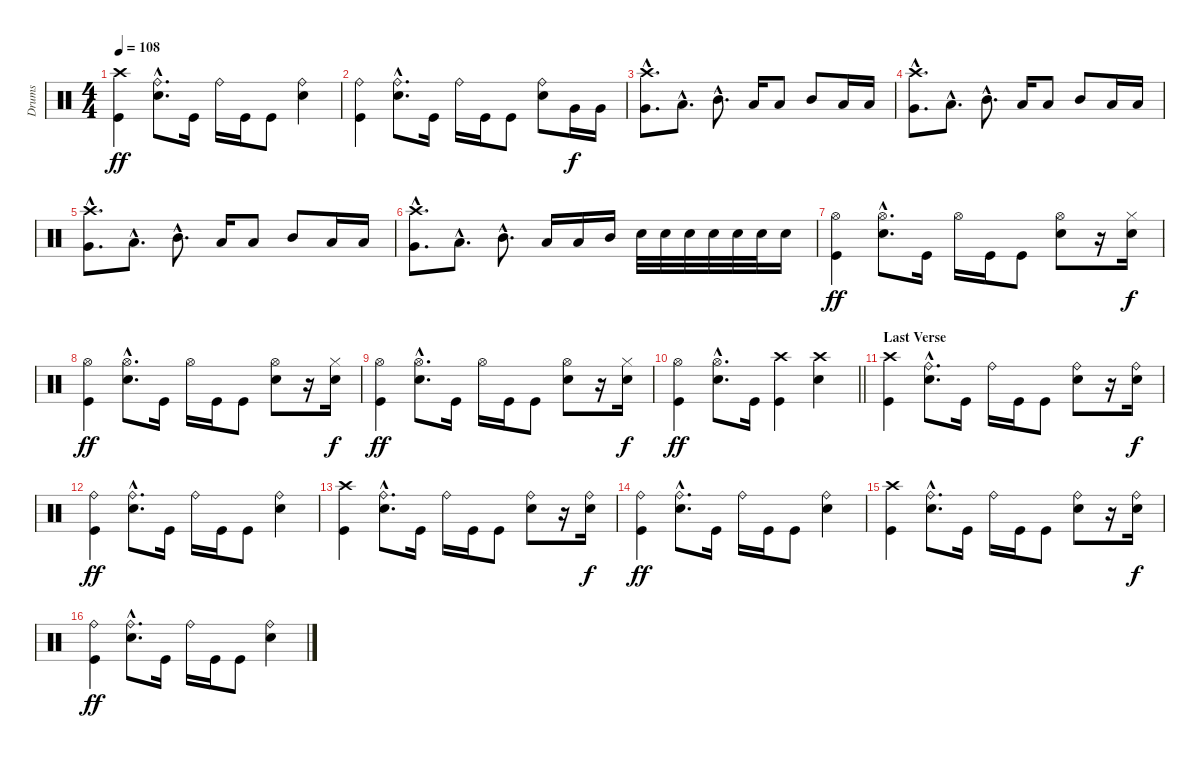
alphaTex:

\track ("Drums" "Drums") {instrument percussion}
\staff {score}
\articulation defaults
\ts (4 4)
\tempo 108
\clef neutral
\ks c
("Crash high (hit)" "Kick (hit)").4{dy ff} ("Ride (bell)"{hac} "Electric Snare (hit)"{hac}).8{d} "Kick (hit)".16 "Ride (bell)".16 "Kick (hit)".16 "Kick (hit)".8 ("Ride (bell)" "Electric Snare (hit)").4 |
("Ride (bell)" "Kick (hit)").4 ("Ride (bell)"{hac} "Electric Snare (hit)"{hac}).8{d} "Kick (hit)".16 "Ride (bell)".16 "Kick (hit)".16 "Kick (hit)".8 ("Ride (bell)" "Electric Snare (hit)").8 "Very Low Tom (hit)".16{dy f} "Very Low Tom (hit)".16 |
("Crash high (hit)"{hac} "Very Low Tom (hit)"{hac}).8{d} "Low Tom (hit)"{hac}.8{d} "Mid Tom (hit)"{hac}.8{d} "Low Tom (hit)".16 "Low Tom (hit)".8 "Mid Tom (hit)".8 "Low Tom (hit)".16 "Low Tom (hit)".16 |
("Crash high (hit)"{hac} "Very Low Tom (hit)"{hac}).8{d} "Low Tom (hit)"{hac}.8{d} "Mid Tom (hit)"{hac}.8{d} "Low Tom (hit)".16 "Low Tom (hit)".8 "Mid Tom (hit)".8 "Low Tom (hit)".16 "Low Tom (hit)".16 |
("Crash high (hit)"{hac} "Very Low Tom (hit)"{hac}).8{d} "Low Tom (hit)"{hac}.8{d} "Mid Tom (hit)"{hac}.8{d} "Low Tom (hit)".16 "Low Tom (hit)".8 "Mid Tom (hit)".8 "Low Tom (hit)".16 "Low Tom (hit)".16 |
("Crash high (hit)"{hac} "Very Low Tom (hit)"{hac}).8{d} "Low Tom (hit)"{hac}.8{d} "Mid Tom (hit)"{hac}.8{d} "Low Tom (hit)".16 "Low Tom (hit)".16 "Mid Tom (hit)".16 "Electric Snare (hit)".32 "Electric Snare (hit)".32 "Electric Snare (hit)".32 "Electric Snare (hit)".32 "Electric Snare (hit)".32 "Electric Snare (hit)".32 "Electric Snare (hit)".16 |
("Hi-Hat (open)" "Kick (hit)").4{dy ff} ("Hi-Hat (open)"{hac} "Electric Snare (hit)"{hac}).8{d} "Kick (hit)".16 "Hi-Hat (open)".16 "Kick (hit)".16 "Kick (hit)".8 ("Hi-Hat (open)" "Electric Snare (hit)").8 r.16 ("Hi-Hat (closed)" "Electric Snare (hit)").16{dy f} |
("Hi-Hat (open)" "Kick (hit)").4{dy ff} ("Hi-Hat (open)"{hac} "Electric Snare (hit)"{hac}).8{d} "Kick (hit)".16 "Hi-Hat (open)".16 "Kick (hit)".16 "Kick (hit)".8 ("Hi-Hat (open)" "Electric Snare (hit)").8 r.16 ("Hi-Hat (closed)" "Electric Snare (hit)").16{dy f} |
("Hi-Hat (open)" "Kick (hit)").4{dy ff} ("Hi-Hat (open)"{hac} "Electric Snare (hit)"{hac}).8{d} "Kick (hit)".16 "Hi-Hat (open)".16 "Kick (hit)".16 "Kick (hit)".8 ("Hi-Hat (open)" "Electric Snare (hit)").8 r.16 ("Hi-Hat (closed)" "Electric Snare (hit)").16{dy f} |
\barLineRight lightlight
("Hi-Hat (open)" "Kick (hit)").4{dy ff} ("Hi-Hat (open)"{hac} "Electric Snare (hit)"{hac}).8{d} "Kick (hit)".16 ("Crash high (hit)" "Kick (hit)").4 ("Crash high (hit)" "Electric Snare (hit)").4 |
\section ("" "Last Verse")
("Crash high (hit)" "Kick (hit)").4 ("Ride (bell)"{hac} "Electric Snare (hit)"{hac}).8{d} "Kick (hit)".16 "Ride (bell)".16 "Kick (hit)".16 "Kick (hit)".8 ("Ride (bell)" "Electric Snare (hit)").8 r.16 ("Ride (bell)" "Electric Snare (hit)").16{dy f} |
("Ride (bell)" "Kick (hit)").4{dy ff} ("Ride (bell)"{hac} "Electric Snare (hit)"{hac}).8{d} "Kick (hit)".16 "Ride (bell)".16 "Kick (hit)".16 "Kick (hit)".8 ("Ride (bell)" "Electric Snare (hit)").4 |
("Crash high (hit)" "Kick (hit)").4 ("Ride (bell)"{hac} "Electric Snare (hit)"{hac}).8{d} "Kick (hit)".16 "Ride (bell)".16 "Kick (hit)".16 "Kick (hit)".8 ("Ride (bell)" "Electric Snare (hit)").8 r.16 ("Ride (bell)" "Electric Snare (hit)").16{dy f} |
("Ride (bell)" "Kick (hit)").4{dy ff} ("Ride (bell)"{hac} "Electric Snare (hit)"{hac}).8{d} "Kick (hit)".16 "Ride (bell)".16 "Kick (hit)".16 "Kick (hit)".8 ("Ride (bell)" "Electric Snare (hit)").4 |
("Crash high (hit)" "Kick (hit)").4 ("Ride (bell)"{hac} "Electric Snare (hit)"{hac}).8{d} "Kick (hit)".16 "Ride (bell)".16 "Kick (hit)".16 "Kick (hit)".8 ("Ride (bell)" "Electric Snare (hit)").8 r.16 ("Ride (bell)" "Electric Snare (hit)").16{dy f} |
("Ride (bell)" "Kick (hit)").4{dy ff} ("Ride (bell)"{hac} "Electric Snare (hit)"{hac}).8{d} "Kick (hit)".16 "Ride (bell)".16 "Kick (hit)".16 "Kick (hit)".8 ("Ride (bell)" "Electric Snare (hit)").4
